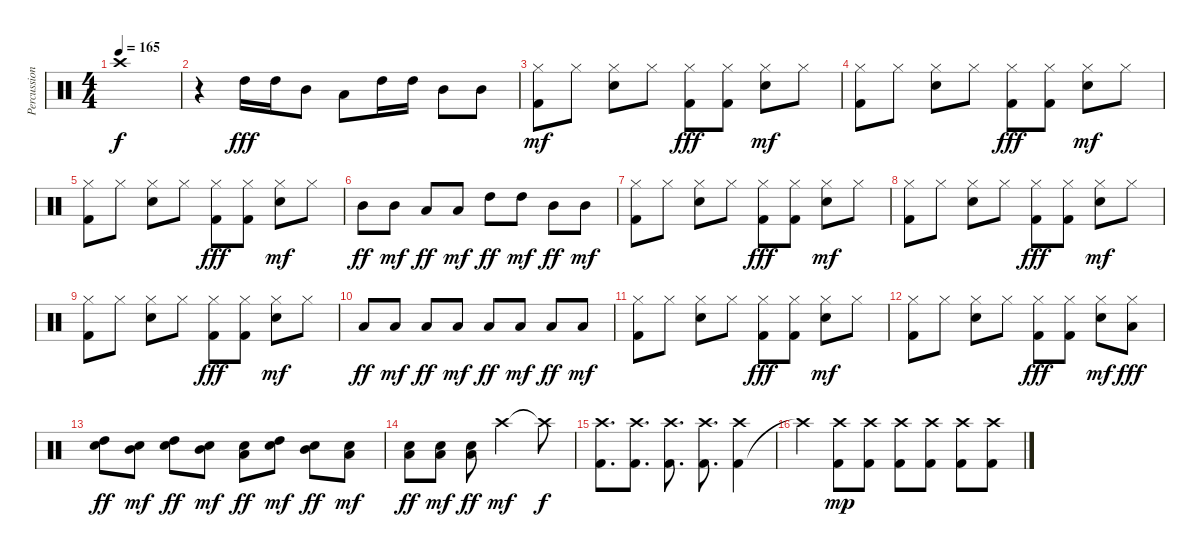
\track ("Percussion" "Percussion") {instrument percussion}
\staff {score}
\articulation defaults
\ts (4 4)
\tempo 165
\clef neutral
\ks c "Crash high (hit)"{t}.1{dy f}
|
r.4 "High Tom (hit)".16{dy fff} "High Tom (hit)".16 "Mid Tom (hit)".8 "Low Tom (hit)".8 "High Tom (hit)".16 "High Tom (hit)".16 "Mid Tom (hit)".8 "Mid Tom (hit)".8 |
("Kick (hit) 2" "Hi-Hat (closed)").8{dy mf} "Hi-Hat (closed)".8 ("Hi-Hat (closed)" "Electric Snare (hit)").8 "Hi-Hat (closed)".8 ("Hi-Hat (closed)" "Kick (hit) 2").8{dy fff} ("Hi-Hat (closed)" "Kick (hit) 2").8 ("Hi-Hat (closed)" "Electric Snare (hit)").8{dy mf} "Hi-Hat (closed)".8 |
("Kick (hit) 2" "Hi-Hat (closed)").8 "Hi-Hat (closed)".8 ("Hi-Hat (closed)" "Electric Snare (hit)").8 "Hi-Hat (closed)".8 ("Hi-Hat (closed)" "Kick (hit) 2").8{dy fff} ("Hi-Hat (closed)" "Kick (hit) 2").8 ("Hi-Hat (closed)" "Electric Snare (hit)").8{dy mf} "Hi-Hat (closed)".8 |
("Kick (hit) 2" "Hi-Hat (closed)").8 "Hi-Hat (closed)".8 ("Hi-Hat (closed)" "Electric Snare (hit)").8 "Hi-Hat (closed)".8 ("Hi-Hat (closed)" "Kick (hit) 2").8{dy fff} ("Hi-Hat (closed)" "Kick (hit) 2").8 ("Hi-Hat (closed)" "Electric Snare (hit)").8{dy mf} "Hi-Hat (closed)".8 |
"Mid Tom (hit)".8{dy ff} "Mid Tom (hit)".8{dy mf} "Low Tom (hit)".8{dy ff} "Low Tom (hit)".8{dy mf} "High Tom (hit)".8{dy ff} "High Tom (hit)".8{dy mf} "Mid Tom (hit)".8{dy ff} "Mid Tom (hit)".8{dy mf} |
("Kick (hit) 2" "Hi-Hat (closed)").8 "Hi-Hat (closed)".8 ("Hi-Hat (closed)" "Electric Snare (hit)").8 "Hi-Hat (closed)".8 ("Hi-Hat (closed)" "Kick (hit) 2").8{dy fff} ("Hi-Hat (closed)" "Kick (hit) 2").8 ("Hi-Hat (closed)" "Electric Snare (hit)").8{dy mf} "Hi-Hat (closed)".8 |
("Kick (hit) 2" "Hi-Hat (closed)").8 "Hi-Hat (closed)".8 ("Hi-Hat (closed)" "Electric Snare (hit)").8 "Hi-Hat (closed)".8 ("Hi-Hat (closed)" "Kick (hit) 2").8{dy fff} ("Hi-Hat (closed)" "Kick (hit) 2").8 ("Hi-Hat (closed)" "Electric Snare (hit)").8{dy mf} "Hi-Hat (closed)".8 |
("Kick (hit) 2" "Hi-Hat (closed)").8 "Hi-Hat (closed)".8 ("Hi-Hat (closed)" "Electric Snare (hit)").8 "Hi-Hat (closed)".8 ("Hi-Hat (closed)" "Kick (hit) 2").8{dy fff} ("Hi-Hat (closed)" "Kick (hit) 2").8 ("Hi-Hat (closed)" "Electric Snare (hit)").8{dy mf} "Hi-Hat (closed)".8 |
"Low Tom (hit)".8{dy ff} "Low Tom (hit)".8{dy mf} "Low Tom (hit)".8{dy ff} "Low Tom (hit)".8{dy mf} "Low Tom (hit)".8{dy ff} "Low Tom (hit)".8{dy mf} "Low Tom (hit)".8{dy ff} "Low Tom (hit)".8{dy mf} |
("Kick (hit) 2" "Hi-Hat (closed)").8 "Hi-Hat (closed)".8 ("Hi-Hat (closed)" "Electric Snare (hit)").8 "Hi-Hat (closed)".8 ("Hi-Hat (closed)" "Kick (hit) 2").8{dy fff} ("Hi-Hat (closed)" "Kick (hit) 2").8 ("Hi-Hat (closed)" "Electric Snare (hit)").8{dy mf} "Hi-Hat (closed)".8 |
("Kick (hit) 2" "Hi-Hat (closed)").8 "Hi-Hat (closed)".8 ("Hi-Hat (closed)" "Electric Snare (hit)").8 "Hi-Hat (closed)".8 ("Hi-Hat (closed)" "Kick (hit) 2").8{dy fff} ("Hi-Hat (closed)" "Kick (hit) 2").8 ("Hi-Hat (closed)" "Electric Snare (hit)").8{dy mf} ("Hi-Hat (closed)" "Low Tom (hit)").8{dy fff} |
("Electric Snare (hit)" "High Tom (hit)").8{dy ff} ("Electric Snare (hit)" "Mid Tom (hit)").8{dy mf} ("Electric Snare (hit)" "High Tom (hit)").8{dy ff} ("Electric Snare (hit)" "Mid Tom (hit)").8{dy mf} ("Electric Snare (hit)" "Low Tom (hit)").8{dy ff} ("Electric Snare (hit)" "High Tom (hit)").8{dy mf} ("Electric Snare (hit)" "Mid Tom (hit)").8{dy ff} ("Electric Snare (hit)" "Low Tom (hit)").8{dy mf} |
("Electric Snare (hit)" "Low Tom (hit)").8{dy ff} ("Electric Snare (hit)" "Low Tom (hit)").8{dy mf} ("Electric Snare (hit)" "Low Tom (hit)").8{dy ff} "Crash high (hit)".2{dy mf} "Crash high (hit)"{t}.8{dy f} |
("Kick (hit) 2" "Crash high (hit)").8{d} ("Kick (hit) 2" "Crash high (hit)").8{d} ("Kick (hit) 2" "Crash high (hit)").8{d} ("Kick (hit) 2" "Crash high (hit)").8{d} ("Kick (hit) 2" "Crash high (hit)").4 |
"Crash high (hit)"{t}.4 ("Kick (hit) 2" "Crash high (hit)").8{dy mp} ("Kick (hit) 2" "Crash high (hit)").8 ("Kick (hit) 2" "Crash high (hit)").8 ("Kick (hit) 2" "Crash high (hit)").8 ("Kick (hit) 2" "Crash high (hit)").8 ("Kick (hit) 2" "Crash high (hit)").8
